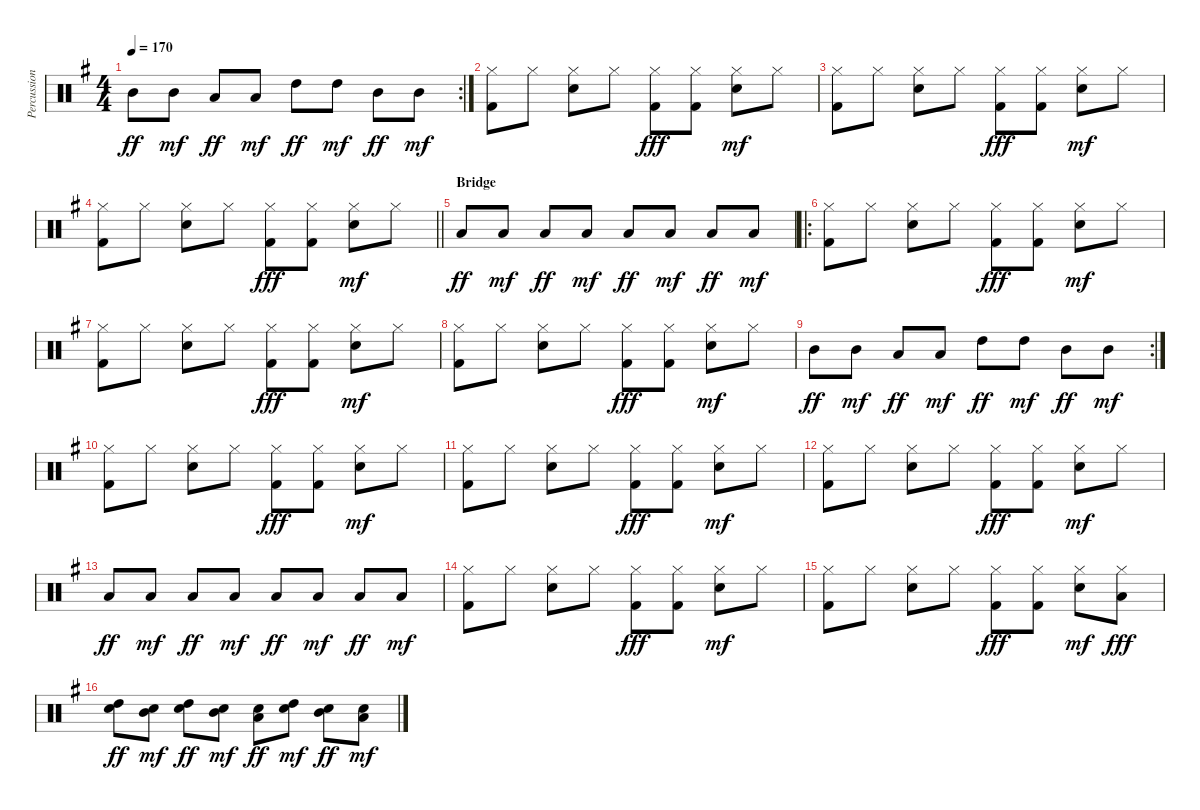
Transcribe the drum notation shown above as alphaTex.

\track ("Percussion" "Percussion") {instrument percussion}
\staff {score}
\articulation defaults
\rc 2
\ts (4 4)
\tempo 170
\clef neutral
\ks g "Mid Tom (hit)".8{dy ff} "Mid Tom (hit)".8{dy mf} "Low Tom (hit)".8{dy ff} "Low Tom (hit)".8{dy mf} "High Tom (hit)".8{dy ff} "High Tom (hit)".8{dy mf} "Mid Tom (hit)".8{dy ff} "Mid Tom (hit)".8{dy mf}
|
("Kick (hit) 2" "Hi-Hat (closed)").8 "Hi-Hat (closed)".8 ("Hi-Hat (closed)" "Electric Snare (hit)").8 "Hi-Hat (closed)".8 ("Hi-Hat (closed)" "Kick (hit) 2").8{dy fff} ("Hi-Hat (closed)" "Kick (hit) 2").8 ("Hi-Hat (closed)" "Electric Snare (hit)").8{dy mf} "Hi-Hat (closed)".8 |
("Kick (hit) 2" "Hi-Hat (closed)").8 "Hi-Hat (closed)".8 ("Hi-Hat (closed)" "Electric Snare (hit)").8 "Hi-Hat (closed)".8 ("Hi-Hat (closed)" "Kick (hit) 2").8{dy fff} ("Hi-Hat (closed)" "Kick (hit) 2").8 ("Hi-Hat (closed)" "Electric Snare (hit)").8{dy mf} "Hi-Hat (closed)".8 |
\barLineRight lightlight
("Kick (hit) 2" "Hi-Hat (closed)").8 "Hi-Hat (closed)".8 ("Hi-Hat (closed)" "Electric Snare (hit)").8 "Hi-Hat (closed)".8 ("Hi-Hat (closed)" "Kick (hit) 2").8{dy fff} ("Hi-Hat (closed)" "Kick (hit) 2").8 ("Hi-Hat (closed)" "Electric Snare (hit)").8{dy mf} "Hi-Hat (closed)".8 |
\section ("" "Bridge")
"Low Tom (hit)".8{dy ff} "Low Tom (hit)".8{dy mf} "Low Tom (hit)".8{dy ff} "Low Tom (hit)".8{dy mf} "Low Tom (hit)".8{dy ff} "Low Tom (hit)".8{dy mf} "Low Tom (hit)".8{dy ff} "Low Tom (hit)".8{dy mf} |
\ro
("Kick (hit) 2" "Hi-Hat (closed)").8 "Hi-Hat (closed)".8 ("Hi-Hat (closed)" "Electric Snare (hit)").8 "Hi-Hat (closed)".8 ("Hi-Hat (closed)" "Kick (hit) 2").8{dy fff} ("Hi-Hat (closed)" "Kick (hit) 2").8 ("Hi-Hat (closed)" "Electric Snare (hit)").8{dy mf} "Hi-Hat (closed)".8 |
("Kick (hit) 2" "Hi-Hat (closed)").8 "Hi-Hat (closed)".8 ("Hi-Hat (closed)" "Electric Snare (hit)").8 "Hi-Hat (closed)".8 ("Hi-Hat (closed)" "Kick (hit) 2").8{dy fff} ("Hi-Hat (closed)" "Kick (hit) 2").8 ("Hi-Hat (closed)" "Electric Snare (hit)").8{dy mf} "Hi-Hat (closed)".8 |
("Kick (hit) 2" "Hi-Hat (closed)").8 "Hi-Hat (closed)".8 ("Hi-Hat (closed)" "Electric Snare (hit)").8 "Hi-Hat (closed)".8 ("Hi-Hat (closed)" "Kick (hit) 2").8{dy fff} ("Hi-Hat (closed)" "Kick (hit) 2").8 ("Hi-Hat (closed)" "Electric Snare (hit)").8{dy mf} "Hi-Hat (closed)".8 |
\rc 2 "Mid Tom (hit)".8{dy ff} "Mid Tom (hit)".8{dy mf} "Low Tom (hit)".8{dy ff} "Low Tom (hit)".8{dy mf} "High Tom (hit)".8{dy ff} "High Tom (hit)".8{dy mf} "Mid Tom (hit)".8{dy ff} "Mid Tom (hit)".8{dy mf}
|
("Kick (hit) 2" "Hi-Hat (closed)").8 "Hi-Hat (closed)".8 ("Hi-Hat (closed)" "Electric Snare (hit)").8 "Hi-Hat (closed)".8 ("Hi-Hat (closed)" "Kick (hit) 2").8{dy fff} ("Hi-Hat (closed)" "Kick (hit) 2").8 ("Hi-Hat (closed)" "Electric Snare (hit)").8{dy mf} "Hi-Hat (closed)".8 |
("Kick (hit) 2" "Hi-Hat (closed)").8 "Hi-Hat (closed)".8 ("Hi-Hat (closed)" "Electric Snare (hit)").8 "Hi-Hat (closed)".8 ("Hi-Hat (closed)" "Kick (hit) 2").8{dy fff} ("Hi-Hat (closed)" "Kick (hit) 2").8 ("Hi-Hat (closed)" "Electric Snare (hit)").8{dy mf} "Hi-Hat (closed)".8 |
("Kick (hit) 2" "Hi-Hat (closed)").8 "Hi-Hat (closed)".8 ("Hi-Hat (closed)" "Electric Snare (hit)").8 "Hi-Hat (closed)".8 ("Hi-Hat (closed)" "Kick (hit) 2").8{dy fff} ("Hi-Hat (closed)" "Kick (hit) 2").8 ("Hi-Hat (closed)" "Electric Snare (hit)").8{dy mf} "Hi-Hat (closed)".8 |
"Low Tom (hit)".8{dy ff} "Low Tom (hit)".8{dy mf} "Low Tom (hit)".8{dy ff} "Low Tom (hit)".8{dy mf} "Low Tom (hit)".8{dy ff} "Low Tom (hit)".8{dy mf} "Low Tom (hit)".8{dy ff} "Low Tom (hit)".8{dy mf} |
("Kick (hit) 2" "Hi-Hat (closed)").8 "Hi-Hat (closed)".8 ("Hi-Hat (closed)" "Electric Snare (hit)").8 "Hi-Hat (closed)".8 ("Hi-Hat (closed)" "Kick (hit) 2").8{dy fff} ("Hi-Hat (closed)" "Kick (hit) 2").8 ("Hi-Hat (closed)" "Electric Snare (hit)").8{dy mf} "Hi-Hat (closed)".8 |
("Kick (hit) 2" "Hi-Hat (closed)").8 "Hi-Hat (closed)".8 ("Hi-Hat (closed)" "Electric Snare (hit)").8 "Hi-Hat (closed)".8 ("Hi-Hat (closed)" "Kick (hit) 2").8{dy fff} ("Hi-Hat (closed)" "Kick (hit) 2").8 ("Hi-Hat (closed)" "Electric Snare (hit)").8{dy mf} ("Hi-Hat (closed)" "Low Tom (hit)").8{dy fff} |
("Electric Snare (hit)" "High Tom (hit)").8{dy ff} ("Electric Snare (hit)" "Mid Tom (hit)").8{dy mf} ("Electric Snare (hit)" "High Tom (hit)").8{dy ff} ("Electric Snare (hit)" "Mid Tom (hit)").8{dy mf} ("Electric Snare (hit)" "Low Tom (hit)").8{dy ff} ("Electric Snare (hit)" "High Tom (hit)").8{dy mf} ("Electric Snare (hit)" "Mid Tom (hit)").8{dy ff} ("Electric Snare (hit)" "Low Tom (hit)").8{dy mf}
